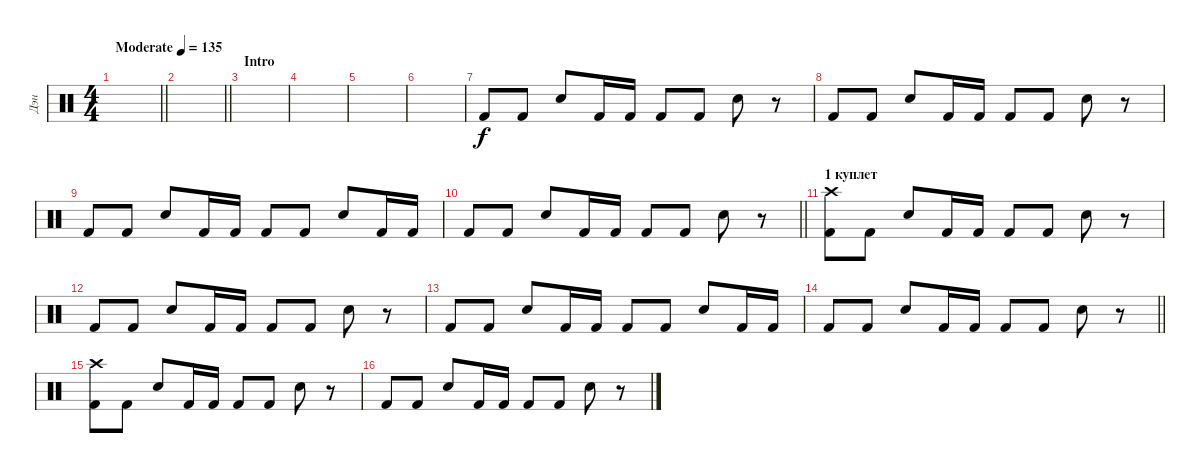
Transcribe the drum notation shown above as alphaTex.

\track ("Дэн" "Дэн") {instrument percussion}
\staff {score}
\articulation defaults
\ts (4 4)
\tempo (135 "Moderate")
\clef neutral
\barLineRight lightlight
\ks c
|
\barLineRight lightlight
|
\section ("" "Intro")
|
|
|
|
"Kick (hit) 2".8 "Kick (hit) 2".8 "Electric Snare (hit)".8 "Kick (hit) 2".16 "Kick (hit) 2".16 "Kick (hit) 2".8 "Kick (hit) 2".8 "Electric Snare (hit)".8 r.8 |
"Kick (hit) 2".8 "Kick (hit) 2".8 "Electric Snare (hit)".8 "Kick (hit) 2".16 "Kick (hit) 2".16 "Kick (hit) 2".8 "Kick (hit) 2".8 "Electric Snare (hit)".8 r.8 |
"Kick (hit) 2".8 "Kick (hit) 2".8 "Electric Snare (hit)".8 "Kick (hit) 2".16 "Kick (hit) 2".16 "Kick (hit) 2".8 "Kick (hit) 2".8 "Electric Snare (hit)".8 "Kick (hit) 2".16 "Kick (hit) 2".16 |
\barLineRight lightlight "Kick (hit) 2".8 "Kick (hit) 2".8 "Electric Snare (hit)".8 "Kick (hit) 2".16 "Kick (hit) 2".16 "Kick (hit) 2".8 "Kick (hit) 2".8 "Electric Snare (hit)".8
r.8 |
\section ("" "1 куплет")
("Kick (hit) 2" "Crash high (hit)").8 "Kick (hit) 2".8 "Electric Snare (hit)".8 "Kick (hit) 2".16 "Kick (hit) 2".16 "Kick (hit) 2".8 "Kick (hit) 2".8 "Electric Snare (hit)".8 r.8 |
"Kick (hit) 2".8 "Kick (hit) 2".8 "Electric Snare (hit)".8 "Kick (hit) 2".16 "Kick (hit) 2".16 "Kick (hit) 2".8 "Kick (hit) 2".8 "Electric Snare (hit)".8 r.8 |
"Kick (hit) 2".8 "Kick (hit) 2".8 "Electric Snare (hit)".8 "Kick (hit) 2".16 "Kick (hit) 2".16 "Kick (hit) 2".8 "Kick (hit) 2".8 "Electric Snare (hit)".8 "Kick (hit) 2".16 "Kick (hit) 2".16 |
\barLineRight lightlight "Kick (hit) 2".8 "Kick (hit) 2".8 "Electric Snare (hit)".8 "Kick (hit) 2".16 "Kick (hit) 2".16 "Kick (hit) 2".8 "Kick (hit) 2".8 "Electric Snare (hit)".8
r.8 |
("Kick (hit) 2" "Crash high (hit)").8 "Kick (hit) 2".8 "Electric Snare (hit)".8 "Kick (hit) 2".16 "Kick (hit) 2".16 "Kick (hit) 2".8 "Kick (hit) 2".8 "Electric Snare (hit)".8 r.8 |
"Kick (hit) 2".8 "Kick (hit) 2".8 "Electric Snare (hit)".8 "Kick (hit) 2".16 "Kick (hit) 2".16 "Kick (hit) 2".8 "Kick (hit) 2".8 "Electric Snare (hit)".8 r.8
